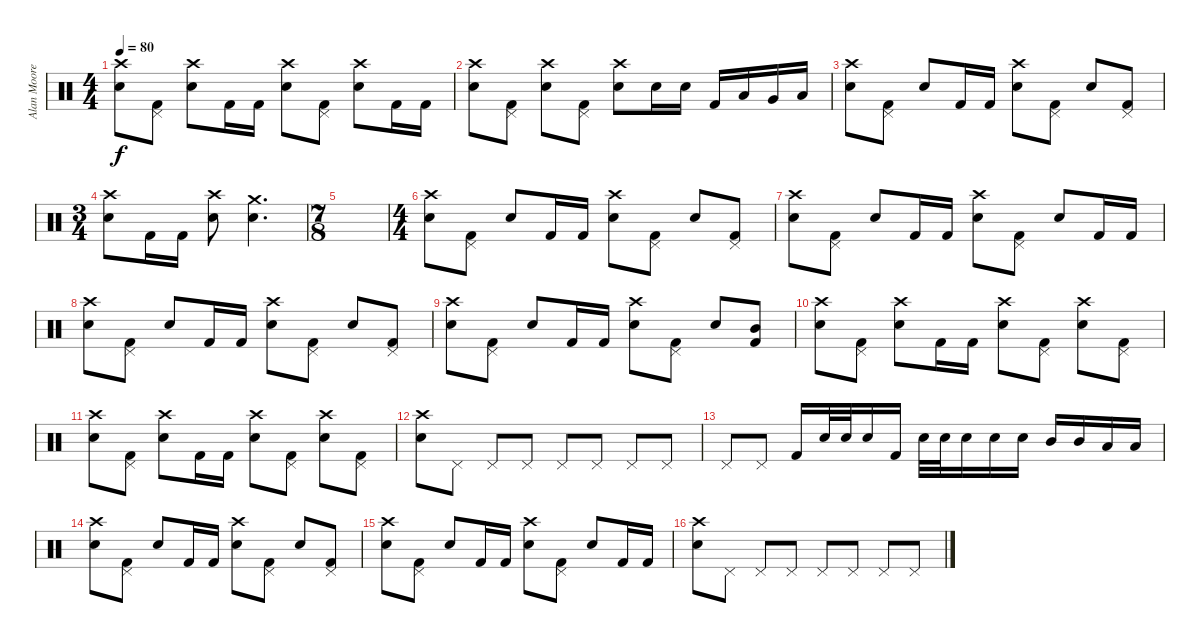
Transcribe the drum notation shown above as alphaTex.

\track ("Alan Moore" "Alan Moore") {instrument percussion}
\staff {score}
\articulation defaults
\ts (4 4)
\tempo 80
\clef neutral
\ks c
("Snare (hit) 2" "Crash high (hit)").8{dy f} ("Pedal Hi-Hat (hit)" "Kick (hit) 2").8 ("Snare (hit) 2" "Crash high (hit)").8 "Kick (hit) 2".16 "Kick (hit) 2".16 ("Snare (hit) 2" "Crash high (hit)").8 ("Pedal Hi-Hat (hit)" "Kick (hit) 2").8 ("Snare (hit) 2" "Crash high (hit)").8 "Kick (hit) 2".16 "Kick (hit) 2".16 |
("Snare (hit) 2" "Crash high (hit)").8 ("Pedal Hi-Hat (hit)" "Kick (hit) 2").8 ("Snare (hit) 2" "Crash high (hit)").8 ("Pedal Hi-Hat (hit)" "Kick (hit) 2").8 ("Snare (hit) 2" "Crash high (hit)").8 "Snare (hit) 2".16 "Snare (hit) 2".16 "Kick (hit) 2".16 "Low Tom (hit)".16 "Very Low Tom (hit)".16 "Low Floor Tom (hit)".16 |
("Snare (hit) 2" "Crash high (hit)").8 ("Pedal Hi-Hat (hit)" "Kick (hit) 2").8 "Snare (hit) 2".8 "Kick (hit) 2".16 "Kick (hit) 2".16 ("Snare (hit) 2" "Crash high (hit)").8 ("Pedal Hi-Hat (hit)" "Kick (hit) 2").8 "Snare (hit) 2".8 ("Pedal Hi-Hat (hit)" "Kick (hit) 2").8 |
\ts (3 4)
("Snare (hit) 2" "Crash high (hit)").8 "Kick (hit) 2".16 "Kick (hit) 2".16 ("Snare (hit) 2" "Crash high (hit)").8 ("Snare (hit) 2" "Crash medium (hit)").4{d} |
\ts (7 8)
|
\ts (4 4)
("Snare (hit) 2" "Crash high (hit)").8 ("Pedal Hi-Hat (hit)" "Kick (hit) 2").8 "Snare (hit) 2".8 "Kick (hit) 2".16 "Kick (hit) 2".16 ("Snare (hit) 2" "Crash high (hit)").8 ("Pedal Hi-Hat (hit)" "Kick (hit) 2").8 "Snare (hit) 2".8 ("Pedal Hi-Hat (hit)" "Kick (hit) 2").8 |
("Snare (hit) 2" "Crash high (hit)").8 ("Pedal Hi-Hat (hit)" "Kick (hit) 2").8 "Snare (hit) 2".8 "Kick (hit) 2".16 "Kick (hit) 2".16 ("Snare (hit) 2" "Crash high (hit)").8 ("Pedal Hi-Hat (hit)" "Kick (hit) 2").8 "Snare (hit) 2".8 "Kick (hit) 2".16 "Kick (hit) 2".16 |
("Snare (hit) 2" "Crash high (hit)").8 ("Pedal Hi-Hat (hit)" "Kick (hit) 2").8 "Snare (hit) 2".8 "Kick (hit) 2".16 "Kick (hit) 2".16 ("Snare (hit) 2" "Crash high (hit)").8 ("Pedal Hi-Hat (hit)" "Kick (hit) 2").8 "Snare (hit) 2".8 ("Pedal Hi-Hat (hit)" "Kick (hit) 2").8 |
("Snare (hit) 2" "Crash high (hit)").8 ("Pedal Hi-Hat (hit)" "Kick (hit) 2").8 "Snare (hit) 2".8 "Kick (hit) 2".16 "Kick (hit) 2".16 ("Snare (hit) 2" "Crash high (hit)").8 ("Pedal Hi-Hat (hit)" "Kick (hit) 2").8 "Snare (hit) 2".8 ("Mid Tom (hit)" "Kick (hit) 2").8 |
("Snare (hit) 2" "Crash high (hit)").8 ("Pedal Hi-Hat (hit)" "Kick (hit) 2").8 ("Snare (hit) 2" "Crash high (hit)").8 "Kick (hit) 2".16 "Kick (hit) 2".16 ("Snare (hit) 2" "Crash high (hit)").8 ("Pedal Hi-Hat (hit)" "Kick (hit) 2").8 ("Snare (hit) 2" "Crash high (hit)").8 ("Pedal Hi-Hat (hit)" "Kick (hit) 2").8 |
("Snare (hit) 2" "Crash high (hit)").8 ("Pedal Hi-Hat (hit)" "Kick (hit) 2").8 ("Snare (hit) 2" "Crash high (hit)").8 "Kick (hit) 2".16 "Kick (hit) 2".16 ("Snare (hit) 2" "Crash high (hit)").8 ("Pedal Hi-Hat (hit)" "Kick (hit) 2").8 ("Snare (hit) 2" "Crash high (hit)").8 ("Pedal Hi-Hat (hit)" "Kick (hit) 2").8 |
("Snare (hit) 2" "Crash high (hit)").8 "Pedal Hi-Hat (hit)".8 "Pedal Hi-Hat (hit)".8 "Pedal Hi-Hat (hit)".8 "Pedal Hi-Hat (hit)".8 "Pedal Hi-Hat (hit)".8 "Pedal Hi-Hat (hit)".8 "Pedal Hi-Hat (hit)".8 |
"Pedal Hi-Hat (hit)".8 "Pedal Hi-Hat (hit)".8 "Kick (hit) 2".16 "Snare (hit) 2".32 "Snare (hit) 2".32 "Snare (hit) 2".16 "Kick (hit) 2".16 "Snare (hit) 2".32 "Snare (hit) 2".32 "Snare (hit) 2".16 "Snare (hit) 2".16 "Snare (hit) 2".16 "Mid Tom (hit)".16 "Mid Tom (hit)".16 "Low Tom (hit)".16 "Low Tom (hit)".16 |
("Snare (hit) 2" "Crash high (hit)").8 ("Pedal Hi-Hat (hit)" "Kick (hit) 2").8 "Snare (hit) 2".8 "Kick (hit) 2".16 "Kick (hit) 2".16 ("Snare (hit) 2" "Crash high (hit)").8 ("Pedal Hi-Hat (hit)" "Kick (hit) 2").8 "Snare (hit) 2".8 ("Pedal Hi-Hat (hit)" "Kick (hit) 2").8 |
("Snare (hit) 2" "Crash high (hit)").8 ("Pedal Hi-Hat (hit)" "Kick (hit) 2").8 "Snare (hit) 2".8 "Kick (hit) 2".16 "Kick (hit) 2".16 ("Snare (hit) 2" "Crash high (hit)").8 ("Pedal Hi-Hat (hit)" "Kick (hit) 2").8 "Snare (hit) 2".8 "Kick (hit) 2".16 "Kick (hit) 2".16 |
("Snare (hit) 2" "Crash high (hit)").8 "Pedal Hi-Hat (hit)".8 "Pedal Hi-Hat (hit)".8 "Pedal Hi-Hat (hit)".8 "Pedal Hi-Hat (hit)".8 "Pedal Hi-Hat (hit)".8 "Pedal Hi-Hat (hit)".8 "Pedal Hi-Hat (hit)".8
